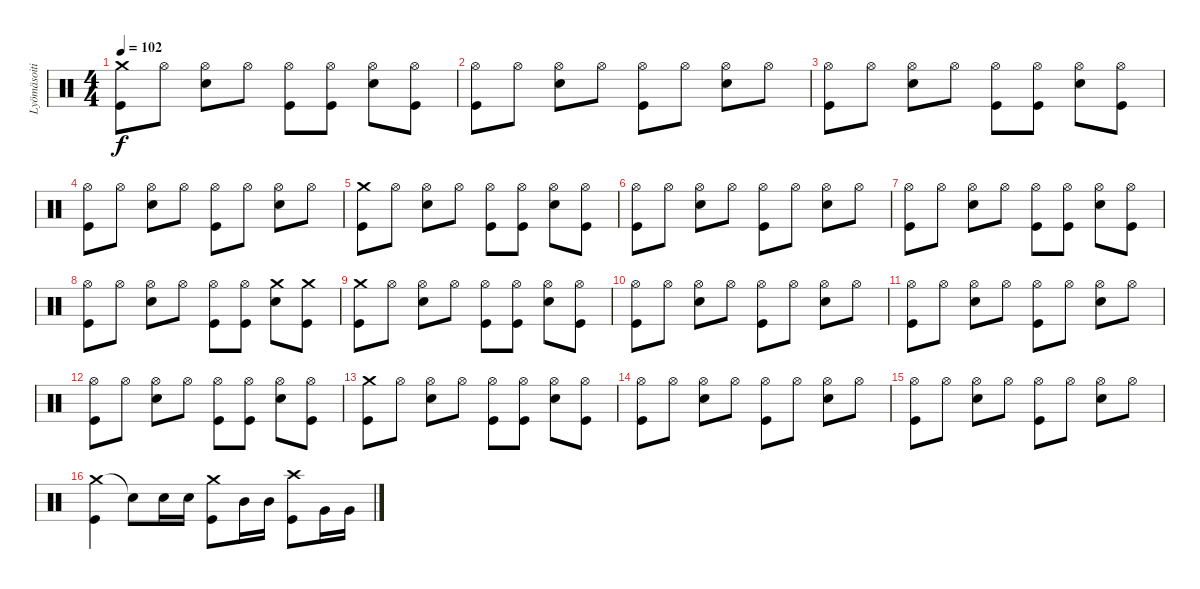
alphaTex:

\track ("Lyömäsoitin" "Lyömäsoiti") {instrument percussion}
\staff {score}
\articulation defaults
\ts (4 4)
\tempo 102
\clef neutral
\ks c
("Crash medium (hit)" "Kick (hit)").8{dy f} "Hi-Hat (open)".8 ("Hi-Hat (open)" "Snare (hit) 2").8 "Hi-Hat (open)".8 ("Hi-Hat (open)" "Kick (hit)").8 ("Hi-Hat (open)" "Kick (hit)").8 ("Hi-Hat (open)" "Snare (hit) 2").8 ("Hi-Hat (open)" "Kick (hit)").8 |
("Hi-Hat (open)" "Kick (hit)").8 "Hi-Hat (open)".8 ("Hi-Hat (open)" "Snare (hit) 2").8 "Hi-Hat (open)".8 ("Hi-Hat (open)" "Kick (hit)").8 "Hi-Hat (open)".8 ("Hi-Hat (open)" "Snare (hit) 2").8 "Hi-Hat (open)".8 |
("Hi-Hat (open)" "Kick (hit)").8 "Hi-Hat (open)".8 ("Hi-Hat (open)" "Snare (hit) 2").8 "Hi-Hat (open)".8 ("Hi-Hat (open)" "Kick (hit)").8 ("Hi-Hat (open)" "Kick (hit)").8 ("Hi-Hat (open)" "Snare (hit) 2").8 ("Hi-Hat (open)" "Kick (hit)").8 |
("Hi-Hat (open)" "Kick (hit)").8 "Hi-Hat (open)".8 ("Hi-Hat (open)" "Snare (hit) 2").8 "Hi-Hat (open)".8 ("Hi-Hat (open)" "Kick (hit)").8 "Hi-Hat (open)".8 ("Hi-Hat (open)" "Snare (hit) 2").8 "Hi-Hat (open)".8 |
("Crash medium (hit)" "Kick (hit)").8 "Hi-Hat (open)".8 ("Hi-Hat (open)" "Snare (hit) 2").8 "Hi-Hat (open)".8 ("Hi-Hat (open)" "Kick (hit)").8 ("Hi-Hat (open)" "Kick (hit)").8 ("Hi-Hat (open)" "Snare (hit) 2").8 ("Hi-Hat (open)" "Kick (hit)").8 |
("Hi-Hat (open)" "Kick (hit)").8 "Hi-Hat (open)".8 ("Hi-Hat (open)" "Snare (hit) 2").8 "Hi-Hat (open)".8 ("Hi-Hat (open)" "Kick (hit)").8 "Hi-Hat (open)".8 ("Hi-Hat (open)" "Snare (hit) 2").8 "Hi-Hat (open)".8 |
("Hi-Hat (open)" "Kick (hit)").8 "Hi-Hat (open)".8 ("Hi-Hat (open)" "Snare (hit) 2").8 "Hi-Hat (open)".8 ("Hi-Hat (open)" "Kick (hit)").8 ("Hi-Hat (open)" "Kick (hit)").8 ("Hi-Hat (open)" "Snare (hit) 2").8 ("Hi-Hat (open)" "Kick (hit)").8 |
("Hi-Hat (open)" "Kick (hit)").8 "Hi-Hat (open)".8 ("Hi-Hat (open)" "Snare (hit) 2").8 "Hi-Hat (open)".8 ("Hi-Hat (open)" "Kick (hit)").8 ("Hi-Hat (open)" "Kick (hit)").8 ("Crash medium (hit)" "Snare (hit) 2").8 ("Crash medium (hit)" "Kick (hit)").8 |
("Crash medium (hit)" "Kick (hit)").8 "Hi-Hat (open)".8 ("Hi-Hat (open)" "Snare (hit) 2").8 "Hi-Hat (open)".8 ("Hi-Hat (open)" "Kick (hit)").8 ("Hi-Hat (open)" "Kick (hit)").8 ("Hi-Hat (open)" "Snare (hit) 2").8 ("Hi-Hat (open)" "Kick (hit)").8 |
("Hi-Hat (open)" "Kick (hit)").8 "Hi-Hat (open)".8 ("Hi-Hat (open)" "Snare (hit) 2").8 "Hi-Hat (open)".8 ("Hi-Hat (open)" "Kick (hit)").8 "Hi-Hat (open)".8 ("Hi-Hat (open)" "Snare (hit) 2").8 "Hi-Hat (open)".8 |
("Hi-Hat (open)" "Kick (hit)").8 "Hi-Hat (open)".8 ("Hi-Hat (open)" "Snare (hit) 2").8 "Hi-Hat (open)".8 ("Hi-Hat (open)" "Kick (hit)").8 "Hi-Hat (open)".8 ("Hi-Hat (open)" "Snare (hit) 2").8 "Hi-Hat (open)".8 |
("Hi-Hat (open)" "Kick (hit)").8 "Hi-Hat (open)".8 ("Hi-Hat (open)" "Snare (hit) 2").8 "Hi-Hat (open)".8 ("Hi-Hat (open)" "Kick (hit)").8 ("Hi-Hat (open)" "Kick (hit)").8 ("Hi-Hat (open)" "Snare (hit) 2").8 ("Hi-Hat (open)" "Kick (hit)").8 |
("Crash medium (hit)" "Kick (hit)").8 "Hi-Hat (open)".8 ("Hi-Hat (open)" "Snare (hit) 2").8 "Hi-Hat (open)".8 ("Hi-Hat (open)" "Kick (hit)").8 ("Hi-Hat (open)" "Kick (hit)").8 ("Hi-Hat (open)" "Snare (hit) 2").8 ("Hi-Hat (open)" "Kick (hit)").8 |
("Hi-Hat (open)" "Kick (hit)").8 "Hi-Hat (open)".8 ("Hi-Hat (open)" "Snare (hit) 2").8 "Hi-Hat (open)".8 ("Hi-Hat (open)" "Kick (hit)").8 "Hi-Hat (open)".8 ("Hi-Hat (open)" "Snare (hit) 2").8 "Hi-Hat (open)".8 |
("Hi-Hat (open)" "Kick (hit)").8 "Hi-Hat (open)".8 ("Hi-Hat (open)" "Snare (hit) 2").8 "Hi-Hat (open)".8 ("Hi-Hat (open)" "Kick (hit)").8 "Hi-Hat (open)".8 ("Hi-Hat (open)" "Snare (hit) 2").8 "Hi-Hat (open)".8 |
("Crash medium (hit)" "Kick (hit)").4 "Snare (hit)"{t}.8 "Snare (hit) 2".16 "Snare (hit) 2".16 ("Crash medium (hit)" "Kick (hit)").8 "Mid Tom (hit)".16 "Mid Tom (hit)".16 ("Crash high (hit)" "Kick (hit)").8 "Very Low Tom (hit)".16 "Very Low Tom (hit)".16
